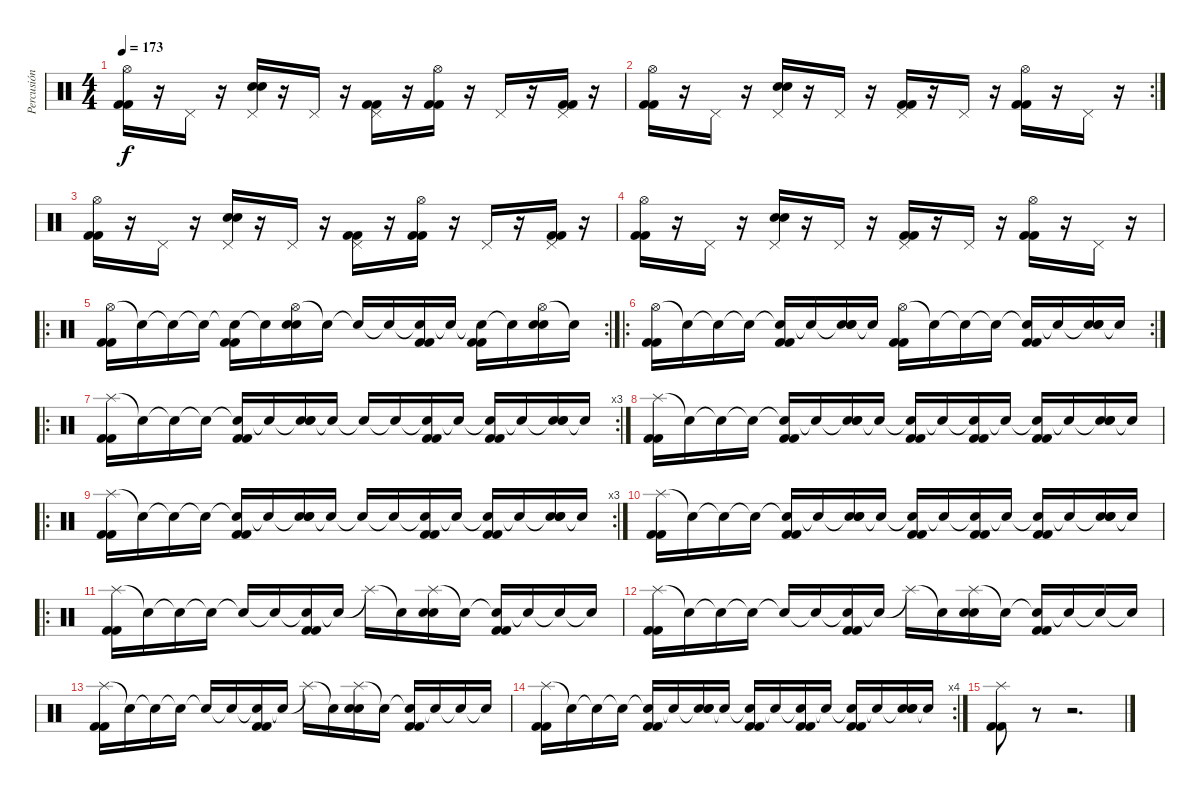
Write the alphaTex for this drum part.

\track ("Percusión" "Percusión") {instrument percussion}
\staff {score}
\articulation defaults
\ts (4 4)
\tempo 173
\clef neutral
\ks c
("Hi-Hat (open)" "Kick (hit) 2" "Kick (hit) 2").16{dy f} r.16 "Pedal Hi-Hat (hit)".16 r.16 ("Pedal Hi-Hat (hit)" "Electric Snare (hit)" "Electric Snare (hit)").16 r.16 "Pedal Hi-Hat (hit)".16 r.16 ("Pedal Hi-Hat (hit)" "Kick (hit) 2" "Kick (hit) 2").16 r.16 ("Hi-Hat (open)" "Kick (hit) 2" "Kick (hit) 2").16 r.16 "Pedal Hi-Hat (hit)".16 r.16 ("Pedal Hi-Hat (hit)" "Kick (hit) 2" "Kick (hit) 2").16 r.16 |
\rc 2
("Hi-Hat (open)" "Kick (hit) 2" "Kick (hit) 2").16 r.16 "Pedal Hi-Hat (hit)".16 r.16 ("Pedal Hi-Hat (hit)" "Electric Snare (hit)" "Electric Snare (hit)").16 r.16 "Pedal Hi-Hat (hit)".16 r.16 ("Pedal Hi-Hat (hit)" "Kick (hit) 2" "Kick (hit) 2").16 r.16 "Pedal Hi-Hat (hit)".16 r.16 ("Hi-Hat (open)" "Kick (hit) 2" "Kick (hit) 2").16 r.16 "Pedal Hi-Hat (hit)".16 r.16 |
("Hi-Hat (open)" "Kick (hit) 2" "Kick (hit) 2").16 r.16 "Pedal Hi-Hat (hit)".16 r.16 ("Pedal Hi-Hat (hit)" "Electric Snare (hit)" "Electric Snare (hit)").16 r.16 "Pedal Hi-Hat (hit)".16 r.16 ("Pedal Hi-Hat (hit)" "Kick (hit) 2" "Kick (hit) 2").16 r.16 ("Hi-Hat (open)" "Kick (hit) 2" "Kick (hit) 2").16 r.16 "Pedal Hi-Hat (hit)".16 r.16 ("Pedal Hi-Hat (hit)" "Kick (hit) 2" "Kick (hit) 2").16 r.16 |
("Hi-Hat (open)" "Kick (hit) 2" "Kick (hit) 2").16 r.16 "Pedal Hi-Hat (hit)".16 r.16 ("Pedal Hi-Hat (hit)" "Electric Snare (hit)" "Electric Snare (hit)").16 r.16 "Pedal Hi-Hat (hit)".16 r.16 ("Pedal Hi-Hat (hit)" "Kick (hit) 2" "Kick (hit) 2").16 r.16 "Pedal Hi-Hat (hit)".16 r.16 ("Hi-Hat (open)" "Kick (hit) 2" "Kick (hit) 2").16 r.16 "Pedal Hi-Hat (hit)".16 r.16 |
\ro
\rc 2
("Hi-Hat (open)" "Kick (hit) 2" "Kick (hit) 2").16 "Snare (hit)"{t}.16 "Snare (hit)"{t}.16 "Snare (hit)"{t}.16 ("Snare (hit)"{t} "Kick (hit) 2" "Kick (hit) 2").16 "Snare (hit)"{t}.16 ("Hi-Hat (open)" "Electric Snare (hit)" "Electric Snare (hit)").16 "Snare (hit)"{t}.16 "Snare (hit)"{t}.16 "Snare (hit)"{t}.16 ("Snare (hit)"{t} "Kick (hit) 2" "Kick (hit) 2").16 "Snare (hit)"{t}.16 ("Snare (hit)"{t} "Kick (hit) 2" "Kick (hit) 2").16 "Snare (hit)"{t}.16 ("Hi-Hat (open)" "Electric Snare (hit)" "Electric Snare (hit)").16 "Snare (hit)"{t}.16 |
\ro
\rc 2
("Hi-Hat (open)" "Kick (hit) 2" "Kick (hit) 2").16 "Snare (hit)"{t}.16 "Snare (hit)"{t}.16 "Snare (hit)"{t}.16 ("Snare (hit)"{t} "Kick (hit) 2" "Kick (hit) 2").16 "Snare (hit)"{t}.16 ("Snare (hit)"{t} "Electric Snare (hit)" "Electric Snare (hit)").16 "Snare (hit)"{t}.16 ("Hi-Hat (open)" "Kick (hit) 2" "Kick (hit) 2").16 "Snare (hit)"{t}.16 "Snare (hit)"{t}.16 "Snare (hit)"{t}.16 ("Snare (hit)"{t} "Kick (hit) 2" "Kick (hit) 2").16 "Snare (hit)"{t}.16 ("Snare (hit)"{t} "Electric Snare (hit)" "Electric Snare (hit)").16 "Snare (hit)"{t}.16 |
\ro
\rc 3
("Splash (hit)" "Kick (hit) 2" "Kick (hit) 2").16 "Snare (hit)"{t}.16 "Snare (hit)"{t}.16 "Snare (hit)"{t}.16 ("Snare (hit)"{t} "Kick (hit) 2" "Kick (hit) 2").16 "Snare (hit)"{t}.16 ("Snare (hit)"{t} "Electric Snare (hit)" "Electric Snare (hit)").16 "Snare (hit)"{t}.16 "Snare (hit)"{t}.16 "Snare (hit)"{t}.16 ("Snare (hit)"{t} "Kick (hit) 2" "Kick (hit) 2").16 "Snare (hit)"{t}.16 ("Snare (hit)"{t} "Kick (hit) 2" "Kick (hit) 2").16 "Snare (hit)"{t}.16 ("Snare (hit)"{t} "Electric Snare (hit)" "Electric Snare (hit)").16 "Snare (hit)"{t}.16 |
("Splash (hit)" "Kick (hit) 2" "Kick (hit) 2").16 "Snare (hit)"{t}.16 "Snare (hit)"{t}.16 "Snare (hit)"{t}.16 ("Snare (hit)"{t} "Kick (hit) 2" "Kick (hit) 2").16 "Snare (hit)"{t}.16 ("Snare (hit)"{t} "Electric Snare (hit)" "Electric Snare (hit)").16 "Snare (hit)"{t}.16 ("Snare (hit)"{t} "Kick (hit) 2" "Kick (hit) 2").16 "Snare (hit)"{t}.16 ("Snare (hit)"{t} "Kick (hit) 2" "Kick (hit) 2").16 "Snare (hit)"{t}.16 ("Snare (hit)"{t} "Kick (hit) 2" "Kick (hit) 2").16 "Snare (hit)"{t}.16 ("Snare (hit)"{t} "Electric Snare (hit)" "Electric Snare (hit)").16 "Snare (hit)"{t}.16 |
\ro
\rc 3
("Splash (hit)" "Kick (hit) 2" "Kick (hit) 2").16 "Snare (hit)"{t}.16 "Snare (hit)"{t}.16 "Snare (hit)"{t}.16 ("Snare (hit)"{t} "Kick (hit) 2" "Kick (hit) 2").16 "Snare (hit)"{t}.16 ("Snare (hit)"{t} "Electric Snare (hit)" "Electric Snare (hit)").16 "Snare (hit)"{t}.16 "Snare (hit)"{t}.16 "Snare (hit)"{t}.16 ("Snare (hit)"{t} "Kick (hit) 2" "Kick (hit) 2").16 "Snare (hit)"{t}.16 ("Snare (hit)"{t} "Kick (hit) 2" "Kick (hit) 2").16 "Snare (hit)"{t}.16 ("Snare (hit)"{t} "Electric Snare (hit)" "Electric Snare (hit)").16 "Snare (hit)"{t}.16 |
("Splash (hit)" "Kick (hit) 2" "Kick (hit) 2").16 "Snare (hit)"{t}.16 "Snare (hit)"{t}.16 "Snare (hit)"{t}.16 ("Snare (hit)"{t} "Kick (hit) 2" "Kick (hit) 2").16 "Snare (hit)"{t}.16 ("Snare (hit)"{t} "Electric Snare (hit)" "Electric Snare (hit)").16 "Snare (hit)"{t}.16 ("Snare (hit)"{t} "Kick (hit) 2" "Kick (hit) 2").16 "Snare (hit)"{t}.16 ("Snare (hit)"{t} "Kick (hit) 2" "Kick (hit) 2").16 "Snare (hit)"{t}.16 ("Snare (hit)"{t} "Kick (hit) 2" "Kick (hit) 2").16 "Snare (hit)"{t}.16 ("Snare (hit)"{t} "Electric Snare (hit)" "Electric Snare (hit)").16 "Snare (hit)"{t}.16 |
\ro
("Splash (hit)" "Kick (hit) 2" "Kick (hit) 2").16 "Snare (hit)"{t}.16 "Snare (hit)"{t}.16 "Snare (hit)"{t}.16 "Snare (hit)"{t}.16 "Snare (hit)"{t}.16 ("Snare (hit)"{t} "Kick (hit) 2" "Kick (hit) 2").16 "Snare (hit)"{t}.16 "Splash (hit)"{t}.16 "Snare (hit)"{t}.16 ("Splash (hit)" "Electric Snare (hit)" "Electric Snare (hit)").16 "Snare (hit)"{t}.16 ("Snare (hit)"{t} "Kick (hit) 2" "Kick (hit) 2").16 "Snare (hit)"{t}.16 "Snare (hit)"{t}.16 "Snare (hit)"{t}.16 |
("Splash (hit)" "Kick (hit) 2" "Kick (hit) 2").16 "Snare (hit)"{t}.16 "Snare (hit)"{t}.16 "Snare (hit)"{t}.16 "Snare (hit)"{t}.16 "Snare (hit)"{t}.16 ("Snare (hit)"{t} "Kick (hit) 2" "Kick (hit) 2").16 "Snare (hit)"{t}.16 "Splash (hit)"{t}.16 "Snare (hit)"{t}.16 ("Splash (hit)" "Electric Snare (hit)" "Electric Snare (hit)").16 "Snare (hit)"{t}.16 ("Snare (hit)"{t} "Kick (hit) 2" "Kick (hit) 2").16 "Snare (hit)"{t}.16 "Snare (hit)"{t}.16 "Snare (hit)"{t}.16 |
("Splash (hit)" "Kick (hit) 2" "Kick (hit) 2").16 "Snare (hit)"{t}.16 "Snare (hit)"{t}.16 "Snare (hit)"{t}.16 "Snare (hit)"{t}.16 "Snare (hit)"{t}.16 ("Snare (hit)"{t} "Kick (hit) 2" "Kick (hit) 2").16 "Snare (hit)"{t}.16 "Splash (hit)"{t}.16 "Snare (hit)"{t}.16 ("Splash (hit)" "Electric Snare (hit)" "Electric Snare (hit)").16 "Snare (hit)"{t}.16 ("Snare (hit)"{t} "Kick (hit) 2" "Kick (hit) 2").16 "Snare (hit)"{t}.16 "Snare (hit)"{t}.16 "Snare (hit)"{t}.16 |
\rc 4
("Splash (hit)" "Kick (hit) 2" "Kick (hit) 2").16 "Snare (hit)"{t}.16 "Snare (hit)"{t}.16 "Snare (hit)"{t}.16 ("Snare (hit)"{t} "Kick (hit) 2" "Kick (hit) 2").16 "Snare (hit)"{t}.16 ("Snare (hit)"{t} "Electric Snare (hit)" "Electric Snare (hit)").16 "Snare (hit)"{t}.16 ("Snare (hit)"{t} "Kick (hit) 2" "Kick (hit) 2").16 "Snare (hit)"{t}.16 ("Snare (hit)"{t} "Kick (hit) 2" "Kick (hit) 2").16 "Snare (hit)"{t}.16 ("Snare (hit)"{t} "Kick (hit) 2" "Kick (hit) 2").16 "Snare (hit)"{t}.16 ("Snare (hit)"{t} "Electric Snare (hit)" "Electric Snare (hit)").16 "Snare (hit)"{t}.16 |
("Splash (hit)" "Kick (hit) 2" "Kick (hit) 2").8 r.8 r.2{d}
